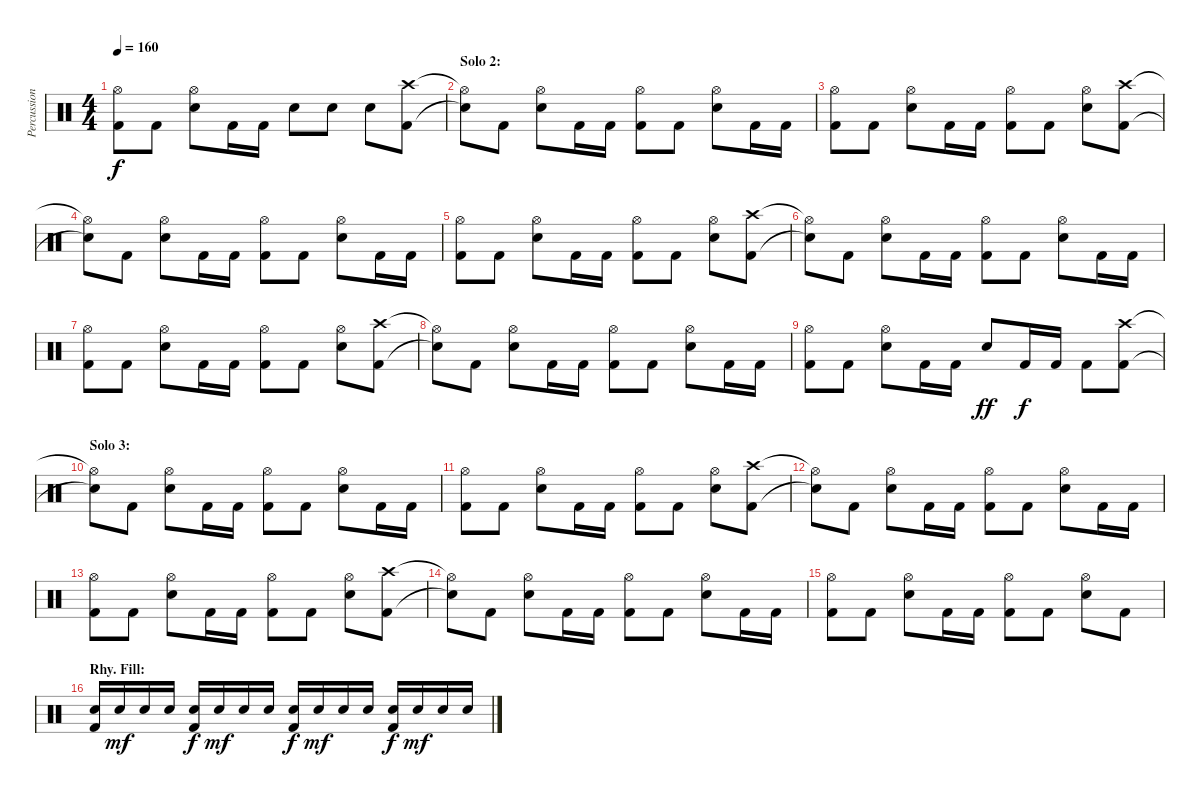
\track ("Percussion" "Percussion") {instrument percussion}
\staff {score}
\articulation defaults
\ts (4 4)
\tempo 160
\clef neutral
\ks c
("Hi-Hat (open)" "Kick (hit) 2").8{dy f} "Kick (hit) 2".8 ("Hi-Hat (open)" "Snare (hit) 2").8 "Kick (hit) 2".16 "Kick (hit) 2".16 "Snare (hit) 2".8 "Snare (hit) 2".8 "Snare (hit) 2".8 ("Crash high (hit)" "Kick (hit) 2").8 |
\section ("" "Solo 2:")
("Hi-Hat (open)"{t} "Snare (hit)"{t}).8 "Kick (hit) 2".8 ("Hi-Hat (open)" "Snare (hit) 2").8 "Kick (hit) 2".16 "Kick (hit) 2".16 ("Hi-Hat (open)" "Kick (hit) 2").8 "Kick (hit) 2".8 ("Hi-Hat (open)" "Snare (hit) 2").8 "Kick (hit) 2".16 "Kick (hit) 2".16 |
("Hi-Hat (open)" "Kick (hit) 2").8 "Kick (hit) 2".8 ("Hi-Hat (open)" "Snare (hit) 2").8 "Kick (hit) 2".16 "Kick (hit) 2".16 ("Hi-Hat (open)" "Kick (hit) 2").8 "Kick (hit) 2".8 ("Hi-Hat (open)" "Snare (hit) 2").8 ("Crash high (hit)" "Kick (hit) 2").8 |
("Hi-Hat (open)"{t} "Snare (hit)"{t}).8 "Kick (hit) 2".8 ("Hi-Hat (open)" "Snare (hit) 2").8 "Kick (hit) 2".16 "Kick (hit) 2".16 ("Hi-Hat (open)" "Kick (hit) 2").8 "Kick (hit) 2".8 ("Hi-Hat (open)" "Snare (hit) 2").8 "Kick (hit) 2".16 "Kick (hit) 2".16 |
("Hi-Hat (open)" "Kick (hit) 2").8 "Kick (hit) 2".8 ("Hi-Hat (open)" "Snare (hit) 2").8 "Kick (hit) 2".16 "Kick (hit) 2".16 ("Hi-Hat (open)" "Kick (hit) 2").8 "Kick (hit) 2".8 ("Hi-Hat (open)" "Snare (hit) 2").8 ("Crash high (hit)" "Kick (hit) 2").8 |
("Hi-Hat (open)"{t} "Snare (hit)"{t}).8 "Kick (hit) 2".8 ("Hi-Hat (open)" "Snare (hit) 2").8 "Kick (hit) 2".16 "Kick (hit) 2".16 ("Hi-Hat (open)" "Kick (hit) 2").8 "Kick (hit) 2".8 ("Hi-Hat (open)" "Snare (hit) 2").8 "Kick (hit) 2".16 "Kick (hit) 2".16 |
("Hi-Hat (open)" "Kick (hit) 2").8 "Kick (hit) 2".8 ("Hi-Hat (open)" "Snare (hit) 2").8 "Kick (hit) 2".16 "Kick (hit) 2".16 ("Hi-Hat (open)" "Kick (hit) 2").8 "Kick (hit) 2".8 ("Hi-Hat (open)" "Snare (hit) 2").8 ("Crash high (hit)" "Kick (hit) 2").8 |
("Hi-Hat (open)"{t} "Snare (hit)"{t}).8 "Kick (hit) 2".8 ("Hi-Hat (open)" "Snare (hit) 2").8 "Kick (hit) 2".16 "Kick (hit) 2".16 ("Hi-Hat (open)" "Kick (hit) 2").8 "Kick (hit) 2".8 ("Hi-Hat (open)" "Snare (hit) 2").8 "Kick (hit) 2".16 "Kick (hit) 2".16 |
("Hi-Hat (open)" "Kick (hit) 2").8 "Kick (hit) 2".8 ("Hi-Hat (open)" "Snare (hit) 2").8 "Kick (hit) 2".16 "Kick (hit) 2".16 "Snare (hit) 2".8{dy ff} "Kick (hit) 2".16{dy f} "Kick (hit) 2".16 "Kick (hit) 2".8 ("Crash high (hit)" "Kick (hit) 2").8 |
\section ("" "Solo 3:")
("Hi-Hat (open)"{t} "Snare (hit)"{t}).8 "Kick (hit) 2".8 ("Hi-Hat (open)" "Snare (hit) 2").8 "Kick (hit) 2".16 "Kick (hit) 2".16 ("Hi-Hat (open)" "Kick (hit) 2").8 "Kick (hit) 2".8 ("Hi-Hat (open)" "Snare (hit) 2").8 "Kick (hit) 2".16 "Kick (hit) 2".16 |
("Hi-Hat (open)" "Kick (hit) 2").8 "Kick (hit) 2".8 ("Hi-Hat (open)" "Snare (hit) 2").8 "Kick (hit) 2".16 "Kick (hit) 2".16 ("Hi-Hat (open)" "Kick (hit) 2").8 "Kick (hit) 2".8 ("Hi-Hat (open)" "Snare (hit) 2").8 ("Crash high (hit)" "Kick (hit) 2").8 |
("Hi-Hat (open)"{t} "Snare (hit)"{t}).8 "Kick (hit) 2".8 ("Hi-Hat (open)" "Snare (hit) 2").8 "Kick (hit) 2".16 "Kick (hit) 2".16 ("Hi-Hat (open)" "Kick (hit) 2").8 "Kick (hit) 2".8 ("Hi-Hat (open)" "Snare (hit) 2").8 "Kick (hit) 2".16 "Kick (hit) 2".16 |
("Hi-Hat (open)" "Kick (hit) 2").8 "Kick (hit) 2".8 ("Hi-Hat (open)" "Snare (hit) 2").8 "Kick (hit) 2".16 "Kick (hit) 2".16 ("Hi-Hat (open)" "Kick (hit) 2").8 "Kick (hit) 2".8 ("Hi-Hat (open)" "Snare (hit) 2").8 ("Crash high (hit)" "Kick (hit) 2").8 |
("Hi-Hat (open)"{t} "Snare (hit)"{t}).8 "Kick (hit) 2".8 ("Hi-Hat (open)" "Snare (hit) 2").8 "Kick (hit) 2".16 "Kick (hit) 2".16 ("Hi-Hat (open)" "Kick (hit) 2").8 "Kick (hit) 2".8 ("Hi-Hat (open)" "Snare (hit) 2").8 "Kick (hit) 2".16 "Kick (hit) 2".16 |
("Hi-Hat (open)" "Kick (hit) 2").8 "Kick (hit) 2".8 ("Hi-Hat (open)" "Snare (hit) 2").8 "Kick (hit) 2".16 "Kick (hit) 2".16 ("Hi-Hat (open)" "Kick (hit) 2").8 "Kick (hit) 2".8 ("Hi-Hat (open)" "Snare (hit) 2").8 "Kick (hit) 2".8 |
\section ("" "Rhy. Fill:")
("Snare (hit) 2" "Kick (hit) 2").16 "Snare (hit) 2".16{dy mf} "Snare (hit) 2".16 "Snare (hit) 2".16 ("Snare (hit) 2" "Kick (hit) 2").16{dy f} "Snare (hit) 2".16{dy mf} "Snare (hit) 2".16 "Snare (hit) 2".16 ("Snare (hit) 2" "Kick (hit) 2").16{dy f} "Snare (hit) 2".16{dy mf} "Snare (hit) 2".16 "Snare (hit) 2".16 ("Snare (hit) 2" "Kick (hit) 2").16{dy f} "Snare (hit) 2".16{dy mf} "Snare (hit) 2".16 "Snare (hit) 2".16
